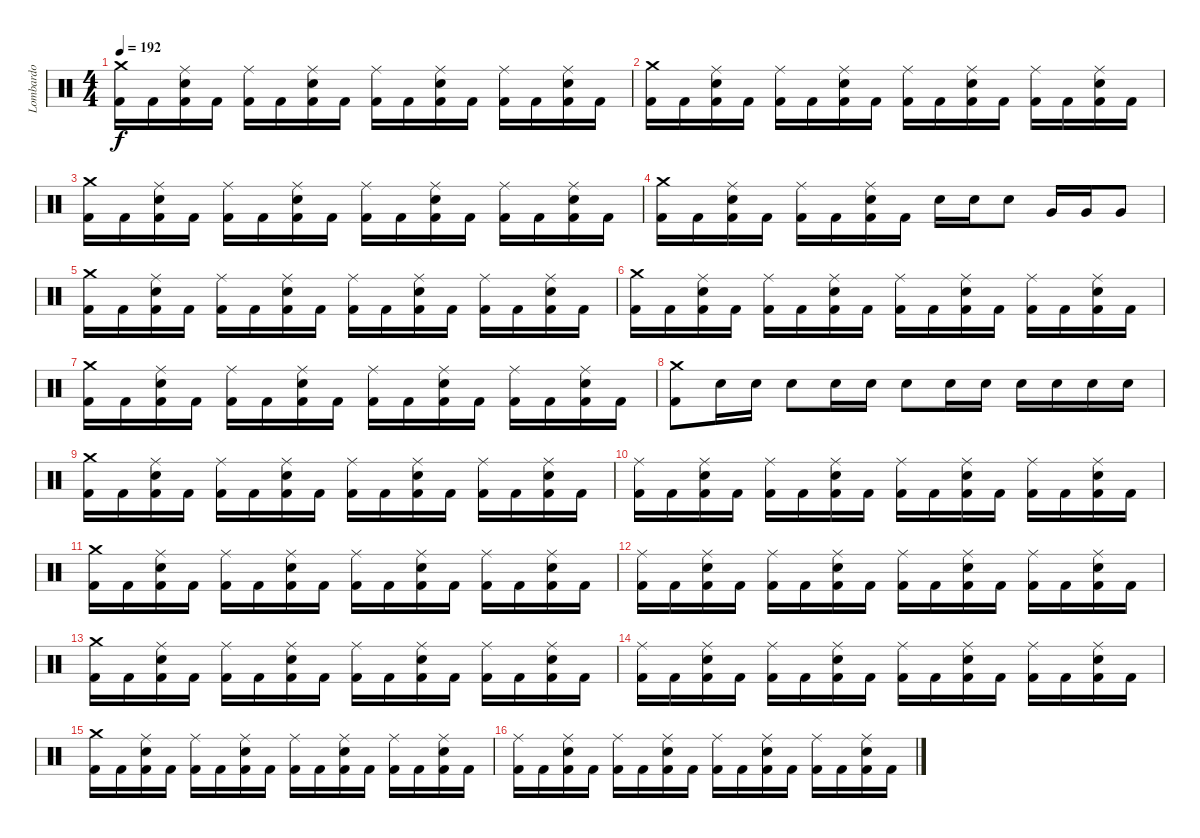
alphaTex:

\track ("Lombardo" "Lombardo") {instrument percussion}
\staff {score}
\articulation defaults
\ts (4 4)
\tempo 192
\clef neutral
\ks c
("Crash medium (hit)" "Kick (hit) 2").16{dy f} "Kick (hit) 2".16 ("Ride (middle)" "Snare (hit) 2" "Kick (hit) 2").16 "Kick (hit) 2".16 ("Ride (middle)" "Kick (hit) 2").16 "Kick (hit) 2".16 ("Ride (middle)" "Snare (hit) 2" "Kick (hit) 2").16 "Kick (hit) 2".16 ("Ride (middle)" "Kick (hit) 2").16 "Kick (hit) 2".16 ("Ride (middle)" "Snare (hit) 2" "Kick (hit) 2").16 "Kick (hit) 2".16 ("Ride (middle)" "Kick (hit) 2").16 "Kick (hit) 2".16 ("Ride (middle)" "Snare (hit) 2" "Kick (hit) 2").16 "Kick (hit) 2".16 |
("Crash medium (hit)" "Kick (hit) 2").16 "Kick (hit) 2".16 ("Ride (middle)" "Snare (hit) 2" "Kick (hit) 2").16 "Kick (hit) 2".16 ("Ride (middle)" "Kick (hit) 2").16 "Kick (hit) 2".16 ("Ride (middle)" "Snare (hit) 2" "Kick (hit) 2").16 "Kick (hit) 2".16 ("Ride (middle)" "Kick (hit) 2").16 "Kick (hit) 2".16 ("Ride (middle)" "Snare (hit) 2" "Kick (hit) 2").16 "Kick (hit) 2".16 ("Ride (middle)" "Kick (hit) 2").16 "Kick (hit) 2".16 ("Ride (middle)" "Snare (hit) 2" "Kick (hit) 2").16 "Kick (hit) 2".16 |
("Crash medium (hit)" "Kick (hit) 2").16 "Kick (hit) 2".16 ("Ride (middle)" "Snare (hit) 2" "Kick (hit) 2").16 "Kick (hit) 2".16 ("Ride (middle)" "Kick (hit) 2").16 "Kick (hit) 2".16 ("Ride (middle)" "Snare (hit) 2" "Kick (hit) 2").16 "Kick (hit) 2".16 ("Ride (middle)" "Kick (hit) 2").16 "Kick (hit) 2".16 ("Ride (middle)" "Snare (hit) 2" "Kick (hit) 2").16 "Kick (hit) 2".16 ("Ride (middle)" "Kick (hit) 2").16 "Kick (hit) 2".16 ("Ride (middle)" "Snare (hit) 2" "Kick (hit) 2").16 "Kick (hit) 2".16 |
("Crash medium (hit)" "Kick (hit) 2").16 "Kick (hit) 2".16 ("Ride (middle)" "Snare (hit) 2" "Kick (hit) 2").16 "Kick (hit) 2".16 ("Ride (middle)" "Kick (hit) 2").16 "Kick (hit) 2".16 ("Ride (middle)" "Snare (hit) 2" "Kick (hit) 2").16 "Kick (hit) 2".16 "Snare (hit) 2".16 "Snare (hit) 2".16 "Snare (hit) 2".8 "Very Low Tom (hit)".16 "Very Low Tom (hit)".16 "Very Low Tom (hit)".8 |
("Crash medium (hit)" "Kick (hit) 2").16 "Kick (hit) 2".16 ("Ride (middle)" "Snare (hit) 2" "Kick (hit) 2").16 "Kick (hit) 2".16 ("Ride (middle)" "Kick (hit) 2").16 "Kick (hit) 2".16 ("Ride (middle)" "Snare (hit) 2" "Kick (hit) 2").16 "Kick (hit) 2".16 ("Ride (middle)" "Kick (hit) 2").16 "Kick (hit) 2".16 ("Ride (middle)" "Snare (hit) 2" "Kick (hit) 2").16 "Kick (hit) 2".16 ("Ride (middle)" "Kick (hit) 2").16 "Kick (hit) 2".16 ("Ride (middle)" "Snare (hit) 2" "Kick (hit) 2").16 "Kick (hit) 2".16 |
("Crash medium (hit)" "Kick (hit) 2").16 "Kick (hit) 2".16 ("Ride (middle)" "Snare (hit) 2" "Kick (hit) 2").16 "Kick (hit) 2".16 ("Ride (middle)" "Kick (hit) 2").16 "Kick (hit) 2".16 ("Ride (middle)" "Snare (hit) 2" "Kick (hit) 2").16 "Kick (hit) 2".16 ("Ride (middle)" "Kick (hit) 2").16 "Kick (hit) 2".16 ("Ride (middle)" "Snare (hit) 2" "Kick (hit) 2").16 "Kick (hit) 2".16 ("Ride (middle)" "Kick (hit) 2").16 "Kick (hit) 2".16 ("Ride (middle)" "Snare (hit) 2" "Kick (hit) 2").16 "Kick (hit) 2".16 |
("Crash medium (hit)" "Kick (hit) 2").16 "Kick (hit) 2".16 ("Ride (middle)" "Snare (hit) 2" "Kick (hit) 2").16 "Kick (hit) 2".16 ("Ride (middle)" "Kick (hit) 2").16 "Kick (hit) 2".16 ("Ride (middle)" "Snare (hit) 2" "Kick (hit) 2").16 "Kick (hit) 2".16 ("Ride (middle)" "Kick (hit) 2").16 "Kick (hit) 2".16 ("Ride (middle)" "Snare (hit) 2" "Kick (hit) 2").16 "Kick (hit) 2".16 ("Ride (middle)" "Kick (hit) 2").16 "Kick (hit) 2".16 ("Ride (middle)" "Snare (hit) 2" "Kick (hit) 2").16 "Kick (hit) 2".16 |
("Crash medium (hit)" "Kick (hit) 2").8 "Snare (hit) 2".16 "Snare (hit) 2".16 "Snare (hit) 2".8 "Snare (hit) 2".16 "Snare (hit) 2".16 "Snare (hit) 2".8 "Snare (hit) 2".16 "Snare (hit) 2".16 "Snare (hit) 2".16 "Snare (hit) 2".16 "Snare (hit) 2".16 "Snare (hit) 2".16 |
("Crash medium (hit)" "Kick (hit) 2").16 "Kick (hit) 2".16 ("Ride (middle)" "Snare (hit) 2" "Kick (hit) 2").16 "Kick (hit) 2".16 ("Ride (middle)" "Kick (hit) 2").16 "Kick (hit) 2".16 ("Ride (middle)" "Snare (hit) 2" "Kick (hit) 2").16 "Kick (hit) 2".16 ("Ride (middle)" "Kick (hit) 2").16 "Kick (hit) 2".16 ("Ride (middle)" "Snare (hit) 2" "Kick (hit) 2").16 "Kick (hit) 2".16 ("Ride (middle)" "Kick (hit) 2").16 "Kick (hit) 2".16 ("Ride (middle)" "Snare (hit) 2" "Kick (hit) 2").16 "Kick (hit) 2".16 |
("Ride (middle)" "Kick (hit) 2").16 "Kick (hit) 2".16 ("Ride (middle)" "Snare (hit) 2" "Kick (hit) 2").16 "Kick (hit) 2".16 ("Ride (middle)" "Kick (hit) 2").16 "Kick (hit) 2".16 ("Ride (middle)" "Snare (hit) 2" "Kick (hit) 2").16 "Kick (hit) 2".16 ("Ride (middle)" "Kick (hit) 2").16 "Kick (hit) 2".16 ("Ride (middle)" "Snare (hit) 2" "Kick (hit) 2").16 "Kick (hit) 2".16 ("Ride (middle)" "Kick (hit) 2").16 "Kick (hit) 2".16 ("Ride (middle)" "Snare (hit) 2" "Kick (hit) 2").16 "Kick (hit) 2".16 |
("Crash medium (hit)" "Kick (hit) 2").16 "Kick (hit) 2".16 ("Ride (middle)" "Snare (hit) 2" "Kick (hit) 2").16 "Kick (hit) 2".16 ("Ride (middle)" "Kick (hit) 2").16 "Kick (hit) 2".16 ("Ride (middle)" "Snare (hit) 2" "Kick (hit) 2").16 "Kick (hit) 2".16 ("Ride (middle)" "Kick (hit) 2").16 "Kick (hit) 2".16 ("Ride (middle)" "Snare (hit) 2" "Kick (hit) 2").16 "Kick (hit) 2".16 ("Ride (middle)" "Kick (hit) 2").16 "Kick (hit) 2".16 ("Ride (middle)" "Snare (hit) 2" "Kick (hit) 2").16 "Kick (hit) 2".16 |
("Ride (middle)" "Kick (hit) 2").16 "Kick (hit) 2".16 ("Ride (middle)" "Snare (hit) 2" "Kick (hit) 2").16 "Kick (hit) 2".16 ("Ride (middle)" "Kick (hit) 2").16 "Kick (hit) 2".16 ("Ride (middle)" "Snare (hit) 2" "Kick (hit) 2").16 "Kick (hit) 2".16 ("Ride (middle)" "Kick (hit) 2").16 "Kick (hit) 2".16 ("Ride (middle)" "Snare (hit) 2" "Kick (hit) 2").16 "Kick (hit) 2".16 ("Ride (middle)" "Kick (hit) 2").16 "Kick (hit) 2".16 ("Ride (middle)" "Snare (hit) 2" "Kick (hit) 2").16 "Kick (hit) 2".16 |
("Crash medium (hit)" "Kick (hit) 2").16 "Kick (hit) 2".16 ("Ride (middle)" "Snare (hit) 2" "Kick (hit) 2").16 "Kick (hit) 2".16 ("Ride (middle)" "Kick (hit) 2").16 "Kick (hit) 2".16 ("Ride (middle)" "Snare (hit) 2" "Kick (hit) 2").16 "Kick (hit) 2".16 ("Ride (middle)" "Kick (hit) 2").16 "Kick (hit) 2".16 ("Ride (middle)" "Snare (hit) 2" "Kick (hit) 2").16 "Kick (hit) 2".16 ("Ride (middle)" "Kick (hit) 2").16 "Kick (hit) 2".16 ("Ride (middle)" "Snare (hit) 2" "Kick (hit) 2").16 "Kick (hit) 2".16 |
("Ride (middle)" "Kick (hit) 2").16 "Kick (hit) 2".16 ("Ride (middle)" "Snare (hit) 2" "Kick (hit) 2").16 "Kick (hit) 2".16 ("Ride (middle)" "Kick (hit) 2").16 "Kick (hit) 2".16 ("Ride (middle)" "Snare (hit) 2" "Kick (hit) 2").16 "Kick (hit) 2".16 ("Ride (middle)" "Kick (hit) 2").16 "Kick (hit) 2".16 ("Ride (middle)" "Snare (hit) 2" "Kick (hit) 2").16 "Kick (hit) 2".16 ("Ride (middle)" "Kick (hit) 2").16 "Kick (hit) 2".16 ("Ride (middle)" "Snare (hit) 2" "Kick (hit) 2").16 "Kick (hit) 2".16 |
("Crash medium (hit)" "Kick (hit) 2").16 "Kick (hit) 2".16 ("Ride (middle)" "Snare (hit) 2" "Kick (hit) 2").16 "Kick (hit) 2".16 ("Ride (middle)" "Kick (hit) 2").16 "Kick (hit) 2".16 ("Ride (middle)" "Snare (hit) 2" "Kick (hit) 2").16 "Kick (hit) 2".16 ("Ride (middle)" "Kick (hit) 2").16 "Kick (hit) 2".16 ("Ride (middle)" "Snare (hit) 2" "Kick (hit) 2").16 "Kick (hit) 2".16 ("Ride (middle)" "Kick (hit) 2").16 "Kick (hit) 2".16 ("Ride (middle)" "Snare (hit) 2" "Kick (hit) 2").16 "Kick (hit) 2".16 |
("Ride (middle)" "Kick (hit) 2").16 "Kick (hit) 2".16 ("Ride (middle)" "Snare (hit) 2" "Kick (hit) 2").16 "Kick (hit) 2".16 ("Ride (middle)" "Kick (hit) 2").16 "Kick (hit) 2".16 ("Ride (middle)" "Snare (hit) 2" "Kick (hit) 2").16 "Kick (hit) 2".16 ("Ride (middle)" "Kick (hit) 2").16 "Kick (hit) 2".16 ("Ride (middle)" "Snare (hit) 2" "Kick (hit) 2").16 "Kick (hit) 2".16 ("Ride (middle)" "Kick (hit) 2").16 "Kick (hit) 2".16 ("Ride (middle)" "Snare (hit) 2" "Kick (hit) 2").16 "Kick (hit) 2".16
